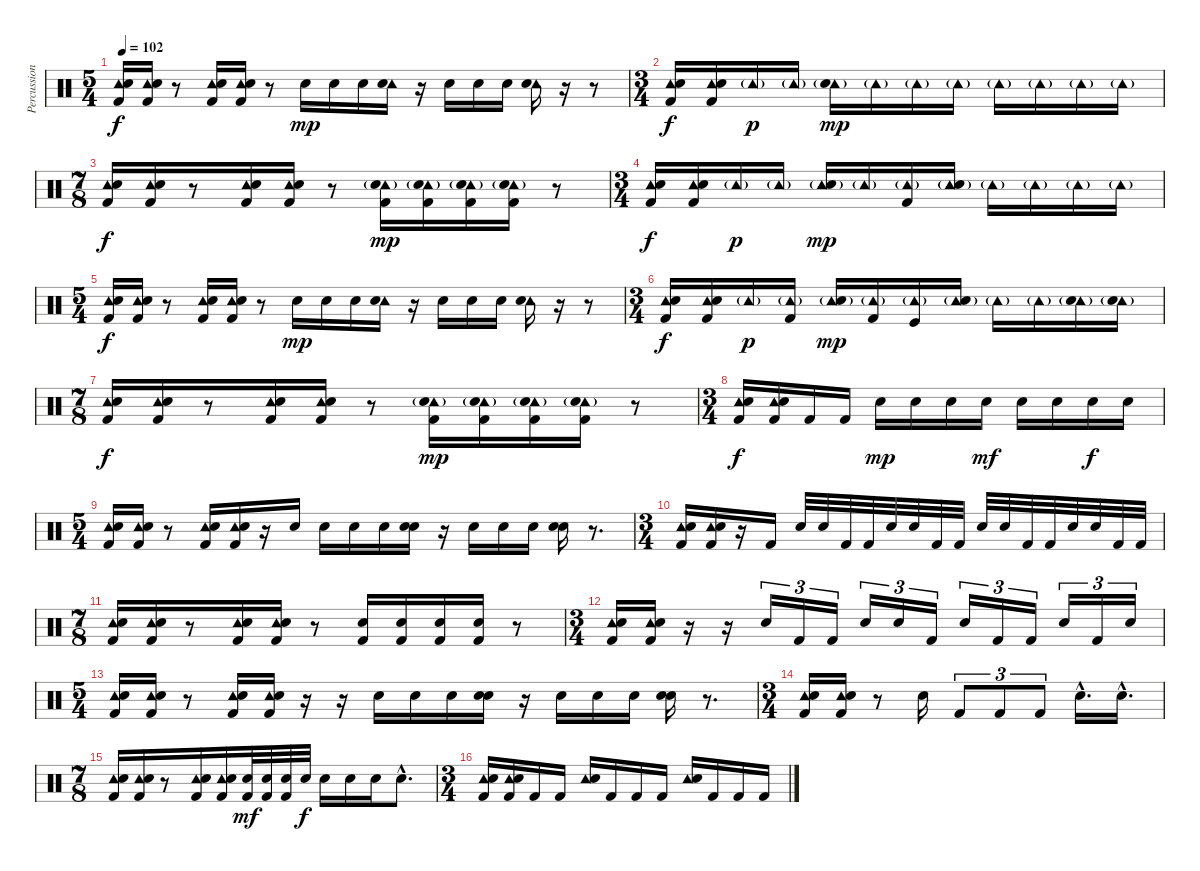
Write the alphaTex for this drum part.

\track ("Percussion" "Percussion") {instrument percussion}
\staff {score}
\articulation defaults
\ts (5 4)
\tempo 102
\clef neutral
\ks c
("Tambourine (hit)" "Snare (hit) 2" "Kick (hit) 2").16{dy f} ("Tambourine (hit)" "Snare (hit) 2" "Kick (hit) 2").16 r.8 ("Tambourine (hit)" "Snare (hit) 2" "Kick (hit) 2").16 ("Tambourine (hit)" "Snare (hit) 2" "Kick (hit) 2").16 r.8 "Electric Snare (hit)".16{dy mp} "Electric Snare (hit)".16 "Electric Snare (hit)".16 ("Tambourine (hit)" "Electric Snare (hit)").16 r.16 "Electric Snare (hit)".16 "Electric Snare (hit)".16 "Electric Snare (hit)".16 ("Tambourine (hit)" "Electric Snare (hit)").16 r.16 r.8 |
\ts (3 4)
("Tambourine (hit)" "Snare (hit) 2" "Kick (hit) 2").16{dy f} ("Tambourine (hit)" "Snare (hit) 2" "Kick (hit) 2").16 "Tambourine (hit)"{g}.16{dy p} "Tambourine (hit)"{g}.16 ("Tambourine (hit)"{g} "Electric Snare (hit)").16{dy mp} "Tambourine (hit)"{g}.16 "Tambourine (hit)"{g}.16 "Tambourine (hit)"{g}.16 "Tambourine (hit)"{g}.16 "Tambourine (hit)"{g}.16 "Tambourine (hit)"{g}.16 "Tambourine (hit)"{g}.16 |
\ts (7 8)
("Tambourine (hit)" "Snare (hit) 2" "Kick (hit) 2").16{dy f} ("Tambourine (hit)" "Snare (hit) 2" "Kick (hit) 2").16 r.8 ("Tambourine (hit)" "Snare (hit) 2" "Kick (hit) 2").16 ("Tambourine (hit)" "Snare (hit) 2" "Kick (hit) 2").16 r.8 ("Tambourine (hit)"{g} "Electric Snare (hit)"{g} "Kick (hit) 2").16{dy mp} ("Tambourine (hit)"{g} "Electric Snare (hit)"{g} "Kick (hit) 2").16 ("Tambourine (hit)"{g} "Electric Snare (hit)"{g} "Kick (hit) 2").16 ("Tambourine (hit)"{g} "Electric Snare (hit)"{g} "Kick (hit) 2").16 r.8 |
\ts (3 4)
("Tambourine (hit)" "Snare (hit) 2" "Kick (hit) 2").16{dy f} ("Tambourine (hit)" "Snare (hit) 2" "Kick (hit) 2").16 "Tambourine (hit)"{g}.16{dy p} "Tambourine (hit)"{g}.16 ("Tambourine (hit)"{g} "Electric Snare (hit)").16{dy mp} "Tambourine (hit)"{g}.16 ("Tambourine (hit)"{g} "Kick (hit) 2").16 ("Tambourine (hit)"{g} "Electric Snare (hit)").16 "Tambourine (hit)"{g}.16 "Tambourine (hit)"{g}.16 "Tambourine (hit)"{g}.16 "Tambourine (hit)"{g}.16 |
\ts (5 4)
("Tambourine (hit)" "Snare (hit) 2" "Kick (hit) 2").16{dy f} ("Tambourine (hit)" "Snare (hit) 2" "Kick (hit) 2").16 r.8 ("Tambourine (hit)" "Snare (hit) 2" "Kick (hit) 2").16 ("Tambourine (hit)" "Snare (hit) 2" "Kick (hit) 2").16 r.8 "Electric Snare (hit)".16{dy mp} "Electric Snare (hit)".16 "Electric Snare (hit)".16 ("Tambourine (hit)" "Electric Snare (hit)").16 r.16 "Electric Snare (hit)".16 "Electric Snare (hit)".16 "Electric Snare (hit)".16 ("Tambourine (hit)" "Electric Snare (hit)").16 r.16 r.8 |
\ts (3 4)
("Tambourine (hit)" "Snare (hit) 2" "Kick (hit) 2").16{dy f} ("Tambourine (hit)" "Snare (hit) 2" "Kick (hit) 2").16 "Tambourine (hit)"{g}.16{dy p} ("Tambourine (hit)"{g} "Kick (hit) 2").16 ("Tambourine (hit)"{g} "Electric Snare (hit)").16{dy mp} ("Tambourine (hit)"{g} "Kick (hit) 2").16 ("Tambourine (hit)"{g} "Kick (hit)").16 ("Tambourine (hit)"{g} "Electric Snare (hit)").16 "Tambourine (hit)"{g}.16 "Tambourine (hit)"{g}.16 ("Tambourine (hit)"{g} "Electric Snare (hit)").16 ("Tambourine (hit)"{g} "Electric Snare (hit)").16 |
\ts (7 8)
("Tambourine (hit)" "Snare (hit) 2" "Kick (hit) 2").16{dy f} ("Tambourine (hit)" "Snare (hit) 2" "Kick (hit) 2").16 r.8 ("Tambourine (hit)" "Snare (hit) 2" "Kick (hit) 2").16 ("Tambourine (hit)" "Snare (hit) 2" "Kick (hit) 2").16 r.8 ("Tambourine (hit)"{g} "Electric Snare (hit)"{g} "Kick (hit) 2").16{dy mp} ("Tambourine (hit)"{g} "Electric Snare (hit)"{g} "Kick (hit) 2").16 ("Tambourine (hit)"{g} "Electric Snare (hit)"{g} "Kick (hit) 2").16 ("Tambourine (hit)"{g} "Electric Snare (hit)"{g} "Kick (hit) 2").16 r.8 |
\ts (3 4)
("Tambourine (hit)" "Snare (hit) 2" "Kick (hit) 2").16{dy f volume 12} ("Tambourine (hit)" "Snare (hit) 2" "Kick (hit) 2").16 "Kick (hit) 2".16 "Kick (hit) 2".16 "Electric Snare (hit)".16{dy mp} "Electric Snare (hit)".16 "Electric Snare (hit)".16 "Electric Snare (hit)".16{dy mf} "Electric Snare (hit)".16 "Electric Snare (hit)".16 "Electric Snare (hit)".16{dy f} "Electric Snare (hit)".16 |
\ts (5 4)
("Tambourine (hit)" "Snare (hit) 2" "Kick (hit) 2").16 ("Tambourine (hit)" "Snare (hit) 2" "Kick (hit) 2").16 r.8 ("Tambourine (hit)" "Snare (hit) 2" "Kick (hit) 2").16 ("Tambourine (hit)" "Snare (hit) 2" "Kick (hit) 2").16 r.16 "Electric Snare (hit)".16 "Electric Snare (hit)".16 "Electric Snare (hit)".16 "Electric Snare (hit)".16 ("Electric Snare (hit)" "Snare (hit) 2").16 r.16 "Electric Snare (hit)".16 "Electric Snare (hit)".16 "Electric Snare (hit)".16 ("Electric Snare (hit)" "Snare (hit) 2").16 r.8{d} |
\ts (3 4)
("Tambourine (hit)" "Snare (hit) 2" "Kick (hit) 2").16 ("Tambourine (hit)" "Snare (hit) 2" "Kick (hit) 2").16 r.16 "Kick (hit) 2".16 "Snare (hit) 2".32 "Snare (hit) 2".32 "Kick (hit) 2".32 "Kick (hit) 2".32 "Snare (hit) 2".32 "Snare (hit) 2".32 "Kick (hit) 2".32 "Kick (hit) 2".32 "Snare (hit) 2".32 "Snare (hit) 2".32 "Kick (hit) 2".32 "Kick (hit) 2".32 "Snare (hit) 2".32 "Snare (hit) 2".32 "Kick (hit) 2".32 "Kick (hit) 2".32 |
\ts (7 8)
("Tambourine (hit)" "Snare (hit) 2" "Kick (hit) 2").16 ("Tambourine (hit)" "Snare (hit) 2" "Kick (hit) 2").16 r.8 ("Tambourine (hit)" "Snare (hit) 2" "Kick (hit) 2").16 ("Tambourine (hit)" "Snare (hit) 2" "Kick (hit) 2").16 r.8 ("Electric Snare (hit)" "Kick (hit) 2").16 ("Electric Snare (hit)" "Kick (hit) 2").16 ("Electric Snare (hit)" "Kick (hit) 2").16 ("Electric Snare (hit)" "Kick (hit) 2").16 r.8 |
\ts (3 4)
("Tambourine (hit)" "Snare (hit) 2" "Kick (hit) 2").16 ("Tambourine (hit)" "Snare (hit) 2" "Kick (hit) 2").16 r.16 r.16 "Snare (hit) 2".16{tu (3 2)} "Kick (hit) 2".16{tu (3 2)} "Kick (hit) 2".16{tu (3 2)} "Snare (hit) 2".16{tu (3 2)} "Snare (hit) 2".16{tu (3 2)} "Kick (hit) 2".16{tu (3 2)} "Snare (hit) 2".16{tu (3 2)} "Kick (hit) 2".16{tu (3 2)} "Kick (hit) 2".16{tu (3 2)} "Snare (hit) 2".16{tu (3 2)} "Kick (hit) 2".16{tu (3 2)} "Snare (hit) 2".16{tu (3 2)} |
\ts (5 4)
("Tambourine (hit)" "Snare (hit) 2" "Kick (hit) 2").16 ("Tambourine (hit)" "Snare (hit) 2" "Kick (hit) 2").16 r.8 ("Tambourine (hit)" "Snare (hit) 2" "Kick (hit) 2").16 ("Tambourine (hit)" "Snare (hit) 2" "Kick (hit) 2").16 r.16 r.16 "Electric Snare (hit)".16 "Electric Snare (hit)".16 "Electric Snare (hit)".16 ("Electric Snare (hit)" "Snare (hit) 2").16 r.16 "Electric Snare (hit)".16 "Electric Snare (hit)".16 "Electric Snare (hit)".16 ("Electric Snare (hit)" "Snare (hit) 2").16 r.8{d} |
\ts (3 4)
("Tambourine (hit)" "Snare (hit) 2" "Kick (hit) 2").16 ("Tambourine (hit)" "Snare (hit) 2" "Kick (hit) 2").16 r.8 "Electric Snare (hit)".16 "Kick (hit) 2".8{tu (3 2)} "Kick (hit) 2".8{tu (3 2)} "Kick (hit) 2".8{tu (3 2)} "Electric Snare (hit)"{hac}.16{d} "Electric Snare (hit)"{hac}.16{d} |
\ts (7 8)
("Tambourine (hit)" "Snare (hit) 2" "Kick (hit) 2").16 ("Tambourine (hit)" "Snare (hit) 2" "Kick (hit) 2").16 r.8 ("Tambourine (hit)" "Snare (hit) 2" "Kick (hit) 2").16 ("Tambourine (hit)" "Snare (hit) 2" "Kick (hit) 2").16 ("Electric Snare (hit)" "Kick (hit) 2").32{dy mf} ("Electric Snare (hit)" "Kick (hit) 2").32 ("Electric Snare (hit)" "Kick (hit) 2").32 "Electric Snare (hit)".32{dy f} "Electric Snare (hit)".16 "Electric Snare (hit)".16 "Electric Snare (hit)".16 "Electric Snare (hit)"{hac}.8{d} |
\ts (3 4)
("Tambourine (hit)" "Snare (hit) 2" "Kick (hit) 2").16 ("Tambourine (hit)" "Snare (hit) 2" "Kick (hit) 2").16 "Kick (hit) 2".16 "Kick (hit) 2".16 ("Tambourine (hit)" "Electric Snare (hit)").16 "Kick (hit) 2".16 "Kick (hit) 2".16 "Kick (hit) 2".16 ("Tambourine (hit)" "Electric Snare (hit)").16 "Kick (hit) 2".16 "Kick (hit) 2".16 "Kick (hit) 2".16
